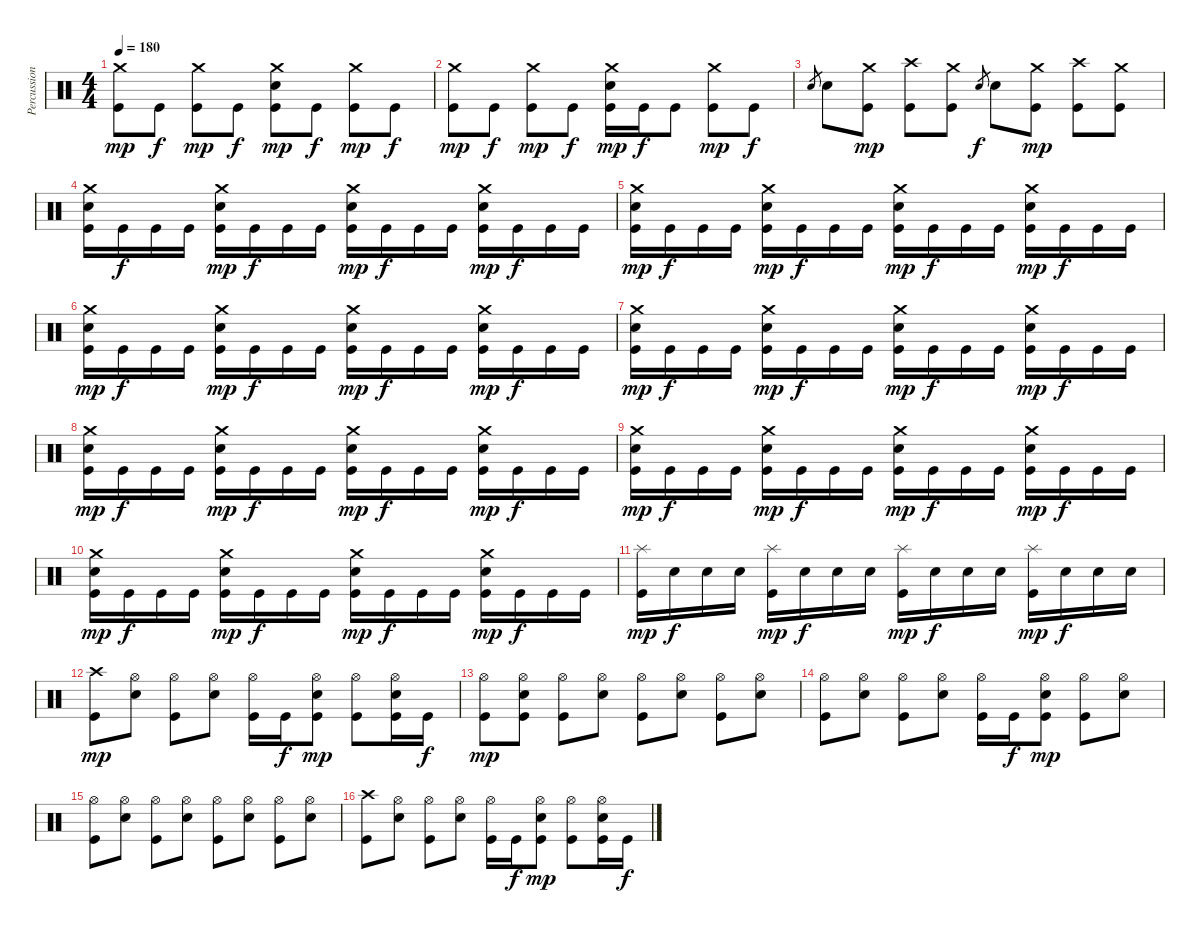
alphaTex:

\track ("Percussion" "Percussion") {instrument percussion}
\staff {score}
\articulation defaults
\ts (4 4)
\tempo 180
\clef neutral
\ks c
("Crash medium (hit)" "Kick (hit)").8{dy mp} "Kick (hit)".8{dy f} ("Crash medium (hit)" "Kick (hit)").8{dy mp} "Kick (hit)".8{dy f} ("Crash medium (hit)" "Electric Snare (hit)" "Kick (hit)").8{dy mp} "Kick (hit)".8{dy f} ("Crash medium (hit)" "Kick (hit)").8{dy mp} "Kick (hit)".8{dy f} |
("Crash medium (hit)" "Kick (hit)").8{dy mp} "Kick (hit)".8{dy f} ("Crash medium (hit)" "Kick (hit)").8{dy mp} "Kick (hit)".8{dy f} ("Crash medium (hit)" "Electric Snare (hit)" "Kick (hit)").16{dy mp} "Kick (hit)".16{dy f} "Kick (hit)".8 ("Crash medium (hit)" "Kick (hit)").8{dy mp} "Kick (hit)".8{dy f} |
"Electric Snare (hit)".8{gr} "Electric Snare (hit)".8 ("Crash medium (hit)" "Kick (hit)").8{dy mp} ("Crash high (hit)" "Kick (hit)").8 ("Crash medium (hit)" "Kick (hit)").8 "Electric Snare (hit)".8{gr dy f} "Electric Snare (hit)".8 ("Crash medium (hit)" "Kick (hit)").8{dy mp} ("Crash high (hit)" "Kick (hit)").8 ("Crash medium (hit)" "Kick (hit)").8 |
("Crash medium (hit)" "Electric Snare (hit)" "Kick (hit)").16 "Kick (hit)".16{dy f} "Kick (hit)".16 "Kick (hit)".16 ("Crash medium (hit)" "Electric Snare (hit)" "Kick (hit)").16{dy mp} "Kick (hit)".16{dy f} "Kick (hit)".16 "Kick (hit)".16 ("Crash medium (hit)" "Electric Snare (hit)" "Kick (hit)").16{dy mp} "Kick (hit)".16{dy f} "Kick (hit)".16 "Kick (hit)".16 ("Crash medium (hit)" "Electric Snare (hit)" "Kick (hit)").16{dy mp} "Kick (hit)".16{dy f} "Kick (hit)".16 "Kick (hit)".16 |
("Crash medium (hit)" "Electric Snare (hit)" "Kick (hit)").16{dy mp} "Kick (hit)".16{dy f} "Kick (hit)".16 "Kick (hit)".16 ("Crash medium (hit)" "Electric Snare (hit)" "Kick (hit)").16{dy mp} "Kick (hit)".16{dy f} "Kick (hit)".16 "Kick (hit)".16 ("Crash medium (hit)" "Electric Snare (hit)" "Kick (hit)").16{dy mp} "Kick (hit)".16{dy f} "Kick (hit)".16 "Kick (hit)".16 ("Crash medium (hit)" "Electric Snare (hit)" "Kick (hit)").16{dy mp} "Kick (hit)".16{dy f} "Kick (hit)".16 "Kick (hit)".16 |
("Crash medium (hit)" "Electric Snare (hit)" "Kick (hit)").16{dy mp} "Kick (hit)".16{dy f} "Kick (hit)".16 "Kick (hit)".16 ("Crash medium (hit)" "Electric Snare (hit)" "Kick (hit)").16{dy mp} "Kick (hit)".16{dy f} "Kick (hit)".16 "Kick (hit)".16 ("Crash medium (hit)" "Electric Snare (hit)" "Kick (hit)").16{dy mp} "Kick (hit)".16{dy f} "Kick (hit)".16 "Kick (hit)".16 ("Crash medium (hit)" "Electric Snare (hit)" "Kick (hit)").16{dy mp} "Kick (hit)".16{dy f} "Kick (hit)".16 "Kick (hit)".16 |
("Crash medium (hit)" "Electric Snare (hit)" "Kick (hit)").16{dy mp} "Kick (hit)".16{dy f} "Kick (hit)".16 "Kick (hit)".16 ("Crash medium (hit)" "Electric Snare (hit)" "Kick (hit)").16{dy mp} "Kick (hit)".16{dy f} "Kick (hit)".16 "Kick (hit)".16 ("Crash medium (hit)" "Electric Snare (hit)" "Kick (hit)").16{dy mp} "Kick (hit)".16{dy f} "Kick (hit)".16 "Kick (hit)".16 ("Crash medium (hit)" "Electric Snare (hit)" "Kick (hit)").16{dy mp} "Kick (hit)".16{dy f} "Kick (hit)".16 "Kick (hit)".16 |
("Crash medium (hit)" "Electric Snare (hit)" "Kick (hit)").16{dy mp} "Kick (hit)".16{dy f} "Kick (hit)".16 "Kick (hit)".16 ("Crash medium (hit)" "Electric Snare (hit)" "Kick (hit)").16{dy mp} "Kick (hit)".16{dy f} "Kick (hit)".16 "Kick (hit)".16 ("Crash medium (hit)" "Electric Snare (hit)" "Kick (hit)").16{dy mp} "Kick (hit)".16{dy f} "Kick (hit)".16 "Kick (hit)".16 ("Crash medium (hit)" "Electric Snare (hit)" "Kick (hit)").16{dy mp} "Kick (hit)".16{dy f} "Kick (hit)".16 "Kick (hit)".16 |
("Crash medium (hit)" "Electric Snare (hit)" "Kick (hit)").16{dy mp} "Kick (hit)".16{dy f} "Kick (hit)".16 "Kick (hit)".16 ("Crash medium (hit)" "Electric Snare (hit)" "Kick (hit)").16{dy mp} "Kick (hit)".16{dy f} "Kick (hit)".16 "Kick (hit)".16 ("Crash medium (hit)" "Electric Snare (hit)" "Kick (hit)").16{dy mp} "Kick (hit)".16{dy f} "Kick (hit)".16 "Kick (hit)".16 ("Crash medium (hit)" "Electric Snare (hit)" "Kick (hit)").16{dy mp} "Kick (hit)".16{dy f} "Kick (hit)".16 "Kick (hit)".16 |
("Crash medium (hit)" "Electric Snare (hit)" "Kick (hit)").16{dy mp} "Kick (hit)".16{dy f} "Kick (hit)".16 "Kick (hit)".16 ("Crash medium (hit)" "Electric Snare (hit)" "Kick (hit)").16{dy mp} "Kick (hit)".16{dy f} "Kick (hit)".16 "Kick (hit)".16 ("Crash medium (hit)" "Electric Snare (hit)" "Kick (hit)").16{dy mp} "Kick (hit)".16{dy f} "Kick (hit)".16 "Kick (hit)".16 ("Crash medium (hit)" "Electric Snare (hit)" "Kick (hit)").16{dy mp} "Kick (hit)".16{dy f} "Kick (hit)".16 "Kick (hit)".16 |
("Splash (hit)" "Kick (hit)").16{dy mp} "Electric Snare (hit)".16{dy f} "Electric Snare (hit)".16 "Electric Snare (hit)".16 ("Splash (hit)" "Kick (hit)").16{dy mp} "Electric Snare (hit)".16{dy f} "Electric Snare (hit)".16 "Electric Snare (hit)".16 ("Splash (hit)" "Kick (hit)").16{dy mp} "Electric Snare (hit)".16{dy f} "Electric Snare (hit)".16 "Electric Snare (hit)".16 ("Splash (hit)" "Kick (hit)").16{dy mp} "Electric Snare (hit)".16{dy f} "Electric Snare (hit)".16 "Electric Snare (hit)".16 |
("Crash high (hit)" "Kick (hit)").8{dy mp} ("Hi-Hat (open)" "Electric Snare (hit)").8 ("Hi-Hat (open)" "Kick (hit)").8 ("Hi-Hat (open)" "Electric Snare (hit)").8 ("Hi-Hat (open)" "Kick (hit)").16 "Kick (hit)".16{dy f} ("Hi-Hat (open)" "Electric Snare (hit)" "Kick (hit)").8{dy mp} ("Hi-Hat (open)" "Kick (hit)").8 ("Hi-Hat (open)" "Electric Snare (hit)" "Kick (hit)").16 "Kick (hit)".16{dy f} |
("Hi-Hat (open)" "Kick (hit)").8{dy mp} ("Hi-Hat (open)" "Electric Snare (hit)" "Kick (hit)").8 ("Hi-Hat (open)" "Kick (hit)").8 ("Hi-Hat (open)" "Electric Snare (hit)").8 ("Hi-Hat (open)" "Kick (hit)").8 ("Hi-Hat (open)" "Electric Snare (hit)").8 ("Hi-Hat (open)" "Kick (hit)").8 ("Hi-Hat (open)" "Electric Snare (hit)").8 |
("Hi-Hat (open)" "Kick (hit)").8 ("Hi-Hat (open)" "Electric Snare (hit)").8 ("Hi-Hat (open)" "Kick (hit)").8 ("Hi-Hat (open)" "Electric Snare (hit)").8 ("Hi-Hat (open)" "Kick (hit)").16 "Kick (hit)".16{dy f} ("Hi-Hat (open)" "Electric Snare (hit)" "Kick (hit)").8{dy mp} ("Hi-Hat (open)" "Kick (hit)").8 ("Hi-Hat (open)" "Electric Snare (hit)").8 |
("Hi-Hat (open)" "Kick (hit)").8 ("Hi-Hat (open)" "Electric Snare (hit)").8 ("Hi-Hat (open)" "Kick (hit)").8 ("Hi-Hat (open)" "Electric Snare (hit)").8 ("Hi-Hat (open)" "Kick (hit)").8 ("Hi-Hat (open)" "Electric Snare (hit)").8 ("Hi-Hat (open)" "Kick (hit)").8 ("Hi-Hat (open)" "Electric Snare (hit)").8 |
("Crash high (hit)" "Kick (hit)").8 ("Hi-Hat (open)" "Electric Snare (hit)").8 ("Hi-Hat (open)" "Kick (hit)").8 ("Hi-Hat (open)" "Electric Snare (hit)").8 ("Hi-Hat (open)" "Kick (hit)").16 "Kick (hit)".16{dy f} ("Hi-Hat (open)" "Electric Snare (hit)" "Kick (hit)").8{dy mp} ("Hi-Hat (open)" "Kick (hit)").8 ("Hi-Hat (open)" "Electric Snare (hit)" "Kick (hit)").16 "Kick (hit)".16{dy f}
